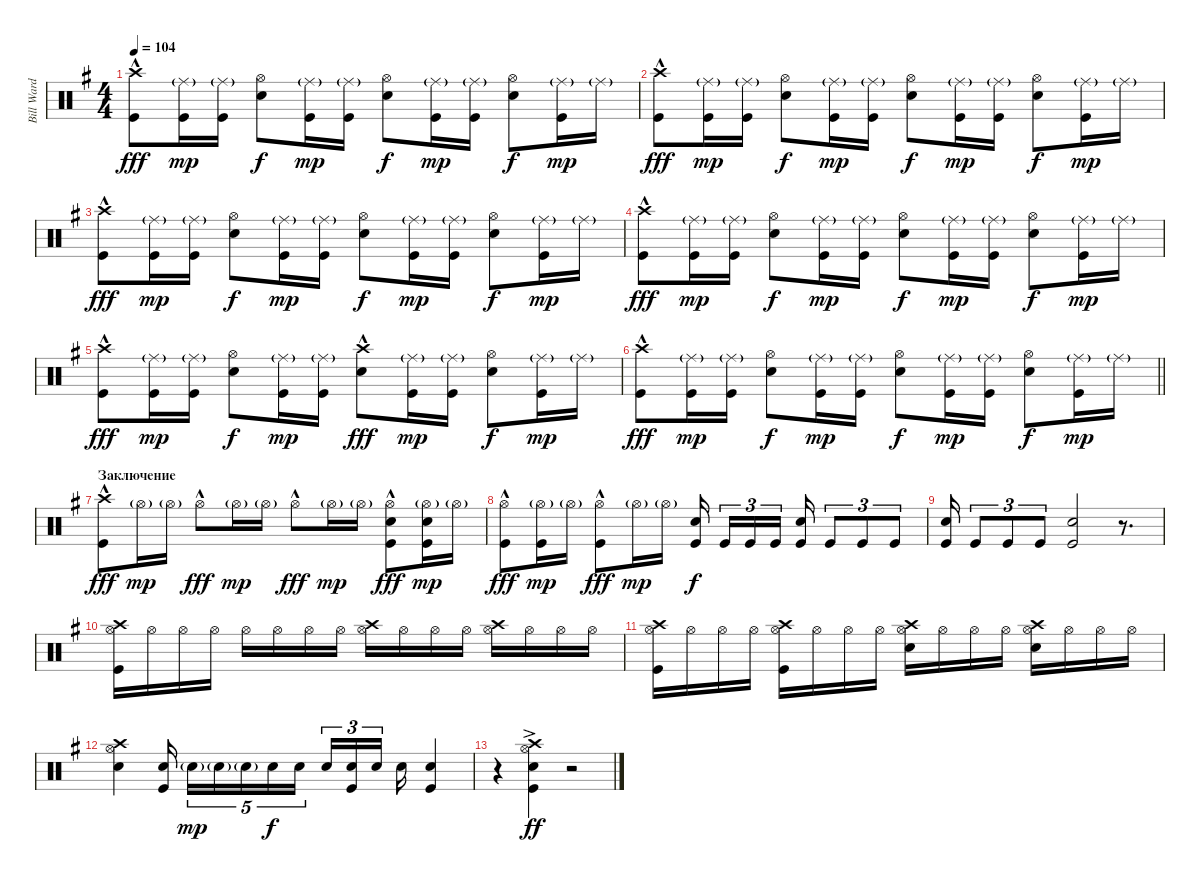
\track ("Bill Ward" "Bill Ward") {instrument percussion}
\staff {score}
\articulation defaults
\ts (4 4)
\tempo 104
\clef neutral
\ks g
("Kick (hit)" "Crash high (hit)"{hac}).8{dy fff} ("Kick (hit)" "Ride (middle)"{g}).16{dy mp} ("Kick (hit)" "Ride (middle)"{g}).16 ("Snare (hit) 2" "Hi-Hat (open)").8{dy f} ("Kick (hit)" "Ride (middle)"{g}).16{dy mp} ("Kick (hit)" "Ride (middle)"{g}).16 ("Snare (hit) 2" "Hi-Hat (open)").8{dy f} ("Kick (hit)" "Ride (middle)"{g}).16{dy mp} ("Kick (hit)" "Ride (middle)"{g}).16 ("Snare (hit) 2" "Hi-Hat (open)").8{dy f} ("Kick (hit)" "Ride (middle)"{g}).16{dy mp} "Ride (middle)"{g}.16 |
("Kick (hit)" "Crash high (hit)"{hac}).8{dy fff} ("Kick (hit)" "Ride (middle)"{g}).16{dy mp} ("Kick (hit)" "Ride (middle)"{g}).16 ("Snare (hit) 2" "Hi-Hat (open)").8{dy f} ("Kick (hit)" "Ride (middle)"{g}).16{dy mp} ("Kick (hit)" "Ride (middle)"{g}).16 ("Snare (hit) 2" "Hi-Hat (open)").8{dy f} ("Kick (hit)" "Ride (middle)"{g}).16{dy mp} ("Kick (hit)" "Ride (middle)"{g}).16 ("Snare (hit) 2" "Hi-Hat (open)").8{dy f} ("Kick (hit)" "Ride (middle)"{g}).16{dy mp} "Ride (middle)"{g}.16 |
("Kick (hit)" "Crash high (hit)"{hac}).8{dy fff} ("Kick (hit)" "Ride (middle)"{g}).16{dy mp} ("Kick (hit)" "Ride (middle)"{g}).16 ("Snare (hit) 2" "Hi-Hat (open)").8{dy f} ("Kick (hit)" "Ride (middle)"{g}).16{dy mp} ("Kick (hit)" "Ride (middle)"{g}).16 ("Snare (hit) 2" "Hi-Hat (open)").8{dy f} ("Kick (hit)" "Ride (middle)"{g}).16{dy mp} ("Kick (hit)" "Ride (middle)"{g}).16 ("Snare (hit) 2" "Hi-Hat (open)").8{dy f} ("Kick (hit)" "Ride (middle)"{g}).16{dy mp} "Ride (middle)"{g}.16 |
("Kick (hit)" "Crash high (hit)"{hac}).8{dy fff} ("Kick (hit)" "Ride (middle)"{g}).16{dy mp} ("Kick (hit)" "Ride (middle)"{g}).16 ("Snare (hit) 2" "Hi-Hat (open)").8{dy f} ("Kick (hit)" "Ride (middle)"{g}).16{dy mp} ("Kick (hit)" "Ride (middle)"{g}).16 ("Snare (hit) 2" "Hi-Hat (open)").8{dy f} ("Kick (hit)" "Ride (middle)"{g}).16{dy mp} ("Kick (hit)" "Ride (middle)"{g}).16 ("Snare (hit) 2" "Hi-Hat (open)").8{dy f} ("Kick (hit)" "Ride (middle)"{g}).16{dy mp} "Ride (middle)"{g}.16 |
("Kick (hit)" "Crash high (hit)"{hac}).8{dy fff} ("Kick (hit)" "Ride (middle)"{g}).16{dy mp} ("Kick (hit)" "Ride (middle)"{g}).16 ("Snare (hit) 2" "Hi-Hat (open)").8{dy f} ("Kick (hit)" "Ride (middle)"{g}).16{dy mp} ("Kick (hit)" "Ride (middle)"{g}).16 ("Crash high (hit)"{hac} "Snare (hit) 2").8{dy fff} ("Kick (hit)" "Ride (middle)"{g}).16{dy mp} ("Kick (hit)" "Ride (middle)"{g}).16 ("Snare (hit) 2" "Hi-Hat (open)").8{dy f} ("Kick (hit)" "Ride (middle)"{g}).16{dy mp} "Ride (middle)"{g}.16 |
\barLineRight lightlight
("Kick (hit)" "Crash high (hit)"{hac}).8{dy fff} ("Kick (hit)" "Ride (middle)"{g}).16{dy mp} ("Kick (hit)" "Ride (middle)"{g}).16 ("Snare (hit) 2" "Hi-Hat (open)").8{dy f} ("Kick (hit)" "Ride (middle)"{g}).16{dy mp} ("Kick (hit)" "Ride (middle)"{g}).16 ("Snare (hit) 2" "Hi-Hat (open)").8{dy f} ("Kick (hit)" "Ride (middle)"{g}).16{dy mp} ("Kick (hit)" "Ride (middle)"{g}).16 ("Snare (hit) 2" "Hi-Hat (open)").8{dy f} ("Kick (hit)" "Ride (middle)"{g}).16{dy mp} "Ride (middle)"{g}.16 |
\section ("" "Заключение")
("Crash high (hit)"{hac} "Kick (hit)").8{dy fff} "Hi-Hat (open)"{g}.16{dy mp} "Hi-Hat (open)"{g}.16 "Hi-Hat (open)"{hac}.8{dy fff} "Hi-Hat (open)"{g}.16{dy mp} "Hi-Hat (open)"{g}.16 "Hi-Hat (open)"{hac}.8{dy fff} "Hi-Hat (open)"{g}.16{dy mp} "Hi-Hat (open)"{g}.16 ("Hi-Hat (open)"{hac} "Kick (hit)" "Snare (hit) 2").8{dy fff} ("Hi-Hat (open)"{g} "Kick (hit)" "Snare (hit) 2").16{dy mp} "Hi-Hat (open)"{g}.16 |
("Hi-Hat (open)"{hac} "Kick (hit)").8{dy fff} ("Hi-Hat (open)"{g} "Kick (hit)").16{dy mp} "Hi-Hat (open)"{g}.16 ("Hi-Hat (open)"{hac} "Kick (hit)").8{dy fff} "Hi-Hat (open)"{g}.16{dy mp} "Hi-Hat (open)"{g}.16 ("Kick (hit)" "Snare (hit) 2").16{dy f beam splitsecondary} "Kick (hit)".16{tu (3 2)} "Kick (hit)".16{tu (3 2)} "Kick (hit)".16{tu (3 2) beam splitsecondary} ("Kick (hit)" "Snare (hit) 2").16 "Kick (hit)".8{tu (3 2)} "Kick (hit)".8{tu (3 2)} "Kick (hit)".8{tu (3 2)} |
("Kick (hit)" "Snare (hit) 2").16 "Kick (hit)".8{tu (3 2)} "Kick (hit)".8{tu (3 2)} "Kick (hit)".8{tu (3 2)} ("Kick (hit)" "Snare (hit) 2").2 r.8{d} |
("Kick (hit)" "Hi-Hat (open)" "Crash high (hit)").16 "Hi-Hat (open)".16 "Hi-Hat (open)".16 "Hi-Hat (open)".16 "Hi-Hat (open)".16 "Hi-Hat (open)".16 "Hi-Hat (open)".16 "Hi-Hat (open)".16 ("Hi-Hat (open)" "Crash high (hit)").16 "Hi-Hat (open)".16 "Hi-Hat (open)".16 "Hi-Hat (open)".16 ("Hi-Hat (open)" "Crash high (hit)").16 "Hi-Hat (open)".16 "Hi-Hat (open)".16 "Hi-Hat (open)".16 |
("Hi-Hat (open)" "Crash high (hit)" "Kick (hit)").16 "Hi-Hat (open)".16 "Hi-Hat (open)".16 "Hi-Hat (open)".16 ("Hi-Hat (open)" "Crash high (hit)" "Kick (hit)").16 "Hi-Hat (open)".16 "Hi-Hat (open)".16 "Hi-Hat (open)".16 ("Hi-Hat (open)" "Crash high (hit)" "Snare (hit) 2").16 "Hi-Hat (open)".16 "Hi-Hat (open)".16 "Hi-Hat (open)".16 ("Hi-Hat (open)" "Crash high (hit)" "Snare (hit) 2").16 "Hi-Hat (open)".16 "Hi-Hat (open)".16 "Hi-Hat (open)".16 |
("Hi-Hat (open)" "Crash high (hit)" "Snare (hit) 2").4 ("Kick (hit)" "Snare (hit) 2").16{beam splitsecondary} "Snare (hit) 2"{g}.16{tu (5 4) dy mp} "Snare (hit) 2"{g}.16{tu (5 4)} "Snare (hit) 2"{g}.16{tu (5 4)} "Snare (hit) 2".16{tu (5 4) dy f} "Snare (hit) 2".16{tu (5 4) beam splitsecondary} "Snare (hit) 2".16{tu (3 2)} ("Kick (hit)" "Snare (hit) 2").16{tu (3 2)} "Snare (hit) 2".16{tu (3 2) beam splitsecondary} "Snare (hit) 2".16 ("Kick (hit)" "Snare (hit) 2").4 |
r.4 ("Kick (hit)"{ac} "Snare (hit) 2"{ac} "Hi-Hat (open)"{ac} "Crash high (hit)"{ac}).4{dy ff} r.2
